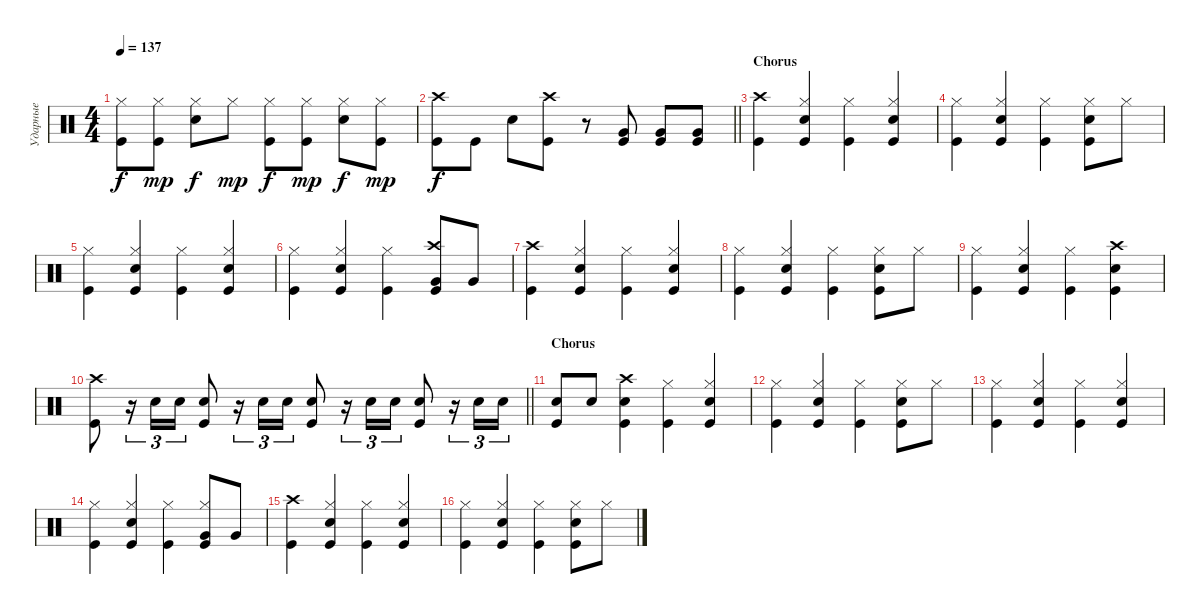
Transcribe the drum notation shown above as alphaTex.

\track ("Ударные" "Ударные") {instrument percussion}
\staff {score}
\articulation defaults
\ts (4 4)
\tempo 137
\clef neutral
\ks aminor
("Kick (hit)" "Hi-Hat (closed)").8{dy f} ("Kick (hit)" "Hi-Hat (closed)").8{dy mp} ("Snare (hit) 2" "Hi-Hat (closed)").8{dy f} "Hi-Hat (closed)".8{dy mp} ("Hi-Hat (closed)" "Kick (hit)").8{dy f} ("Hi-Hat (closed)" "Kick (hit)").8{dy mp} ("Hi-Hat (closed)" "Snare (hit) 2").8{dy f} ("Hi-Hat (closed)" "Kick (hit)").8{dy mp} |
\barLineRight lightlight
("Kick (hit)" "Crash high (hit)").8{dy f} "Kick (hit)".8 "Snare (hit) 2".8 ("Kick (hit)" "Crash high (hit)").8 r.8 ("Kick (hit)" "Very Low Tom (hit)").8 ("Kick (hit)" "Very Low Tom (hit)").8 ("Kick (hit)" "Very Low Tom (hit)").8 |
\section ("" "Chorus")
("Kick (hit)" "Crash high (hit)").4 ("Snare (hit) 2" "Hi-Hat (closed)" "Kick (hit)").4 ("Kick (hit)" "Hi-Hat (closed)").4 ("Snare (hit) 2" "Hi-Hat (closed)" "Kick (hit)").4 |
("Hi-Hat (closed)" "Kick (hit)").4 ("Snare (hit) 2" "Hi-Hat (closed)" "Kick (hit)").4 ("Kick (hit)" "Hi-Hat (closed)").4 ("Snare (hit) 2" "Hi-Hat (closed)" "Kick (hit)").8 "Hi-Hat (closed)".8 |
("Kick (hit)" "Hi-Hat (closed)").4 ("Snare (hit) 2" "Hi-Hat (closed)" "Kick (hit)").4 ("Kick (hit)" "Hi-Hat (closed)").4 ("Snare (hit) 2" "Hi-Hat (closed)" "Kick (hit)").4 |
("Kick (hit)" "Hi-Hat (closed)").4 ("Snare (hit) 2" "Hi-Hat (closed)" "Kick (hit)").4 ("Kick (hit)" "Hi-Hat (closed)").4 ("Kick (hit)" "Very Low Tom (hit)" "Crash high (hit)").8 "Very Low Tom (hit)".8 |
("Kick (hit)" "Crash high (hit)").4 ("Snare (hit) 2" "Hi-Hat (closed)" "Kick (hit)").4 ("Kick (hit)" "Hi-Hat (closed)").4 ("Snare (hit) 2" "Hi-Hat (closed)" "Kick (hit)").4 |
("Hi-Hat (closed)" "Kick (hit)").4 ("Snare (hit) 2" "Hi-Hat (closed)" "Kick (hit)").4 ("Kick (hit)" "Hi-Hat (closed)").4 ("Snare (hit) 2" "Hi-Hat (closed)" "Kick (hit)").8 "Hi-Hat (closed)".8 |
("Kick (hit)" "Hi-Hat (closed)").4 ("Snare (hit) 2" "Hi-Hat (closed)" "Kick (hit)").4 ("Kick (hit)" "Hi-Hat (closed)").4 ("Snare (hit) 2" "Crash high (hit)" "Kick (hit)").4 |
\barLineRight lightlight
("Kick (hit)" "Crash high (hit)").8 r.16{tu (3 2)} "Snare (hit) 2".16{tu (3 2)} "Snare (hit) 2".16{tu (3 2)} ("Snare (hit) 2" "Kick (hit)").8 r.16{tu (3 2)} "Snare (hit) 2".16{tu (3 2)} "Snare (hit) 2".16{tu (3 2)} ("Snare (hit) 2" "Kick (hit)").8 r.16{tu (3 2)} "Snare (hit) 2".16{tu (3 2)} "Snare (hit) 2".16{tu (3 2)} ("Snare (hit) 2" "Kick (hit)").8 r.16{tu (3 2)} "Snare (hit) 2".16{tu (3 2)} "Snare (hit) 2".16{tu (3 2)} |
\section ("" "Chorus")
("Kick (hit)" "Snare (hit) 2").8 "Snare (hit) 2".8 ("Snare (hit) 2" "Crash high (hit)" "Kick (hit)").4 ("Kick (hit)" "Hi-Hat (closed)").4 ("Snare (hit) 2" "Hi-Hat (closed)" "Kick (hit)").4 |
("Hi-Hat (closed)" "Kick (hit)").4 ("Snare (hit) 2" "Hi-Hat (closed)" "Kick (hit)").4 ("Kick (hit)" "Hi-Hat (closed)").4 ("Snare (hit) 2" "Hi-Hat (closed)" "Kick (hit)").8 "Hi-Hat (closed)".8 |
("Kick (hit)" "Hi-Hat (closed)").4 ("Snare (hit) 2" "Hi-Hat (closed)" "Kick (hit)").4 ("Kick (hit)" "Hi-Hat (closed)").4 ("Snare (hit) 2" "Hi-Hat (closed)" "Kick (hit)").4 |
("Kick (hit)" "Hi-Hat (closed)").4 ("Snare (hit) 2" "Hi-Hat (closed)" "Kick (hit)").4 ("Kick (hit)" "Hi-Hat (closed)").4 ("Kick (hit)" "Very Low Tom (hit)" "Hi-Hat (closed)").8 "Very Low Tom (hit)".8 |
("Kick (hit)" "Crash high (hit)").4 ("Snare (hit) 2" "Hi-Hat (closed)" "Kick (hit)").4 ("Kick (hit)" "Hi-Hat (closed)").4 ("Snare (hit) 2" "Hi-Hat (closed)" "Kick (hit)").4 |
("Hi-Hat (closed)" "Kick (hit)").4 ("Snare (hit) 2" "Hi-Hat (closed)" "Kick (hit)").4 ("Kick (hit)" "Hi-Hat (closed)").4 ("Snare (hit) 2" "Hi-Hat (closed)" "Kick (hit)").8 "Hi-Hat (closed)".8
